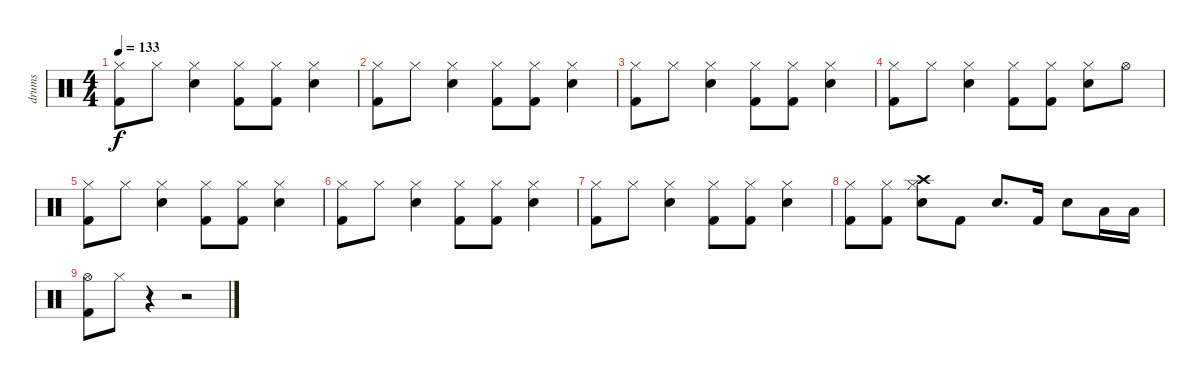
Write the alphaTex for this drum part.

\track ("drums" "drums") {instrument percussion}
\staff {score}
\articulation defaults
\ts (4 4)
\tempo 133
\clef neutral
\ks c
("Hi-Hat (closed)" "Kick (hit) 2").8{dy f} "Hi-Hat (closed)".8 ("Hi-Hat (closed)" "Snare (hit) 2").4 ("Hi-Hat (closed)" "Kick (hit) 2").8 ("Hi-Hat (closed)" "Kick (hit) 2").8 ("Hi-Hat (closed)" "Snare (hit) 2").4 |
("Hi-Hat (closed)" "Kick (hit) 2").8 "Hi-Hat (closed)".8 ("Hi-Hat (closed)" "Snare (hit) 2").4 ("Hi-Hat (closed)" "Kick (hit) 2").8 ("Hi-Hat (closed)" "Kick (hit) 2").8 ("Hi-Hat (closed)" "Snare (hit) 2").4 |
("Hi-Hat (closed)" "Kick (hit) 2").8 "Hi-Hat (closed)".8 ("Hi-Hat (closed)" "Snare (hit) 2").4 ("Hi-Hat (closed)" "Kick (hit) 2").8 ("Hi-Hat (closed)" "Kick (hit) 2").8 ("Hi-Hat (closed)" "Snare (hit) 2").4 |
("Hi-Hat (closed)" "Kick (hit) 2").8 "Hi-Hat (closed)".8 ("Hi-Hat (closed)" "Snare (hit) 2").4 ("Hi-Hat (closed)" "Kick (hit) 2").8 ("Hi-Hat (closed)" "Kick (hit) 2").8 ("Hi-Hat (closed)" "Snare (hit) 2").8 "Hi-Hat (open)".8 |
("Hi-Hat (closed)" "Kick (hit) 2").8 "Hi-Hat (closed)".8 ("Hi-Hat (closed)" "Snare (hit) 2").4 ("Hi-Hat (closed)" "Kick (hit) 2").8 ("Hi-Hat (closed)" "Kick (hit) 2").8 ("Hi-Hat (closed)" "Snare (hit) 2").4 |
("Hi-Hat (closed)" "Kick (hit) 2").8 "Hi-Hat (closed)".8 ("Hi-Hat (closed)" "Snare (hit) 2").4 ("Hi-Hat (closed)" "Kick (hit) 2").8 ("Hi-Hat (closed)" "Kick (hit) 2").8 ("Hi-Hat (closed)" "Snare (hit) 2").4 |
("Hi-Hat (closed)" "Kick (hit) 2").8 "Hi-Hat (closed)".8 ("Hi-Hat (closed)" "Snare (hit) 2").4 ("Hi-Hat (closed)" "Kick (hit) 2").8 ("Hi-Hat (closed)" "Kick (hit) 2").8 ("Hi-Hat (closed)" "Snare (hit) 2").4 |
("Hi-Hat (closed)" "Kick (hit) 2").8 ("Hi-Hat (closed)" "Kick (hit) 2").8 ("Crash high (hit)" "Hi-Hat (closed)" "Snare (hit) 2").8 "Kick (hit) 2".8 "Snare (hit) 2".8{d} "Kick (hit) 2".16 "Snare (hit) 2".8 "Low Tom (hit)".16 "Low Tom (hit)".16 |
("Hi-Hat (open)" "Kick (hit) 2").8 "Hi-Hat (closed)".8 r.4 r.2
